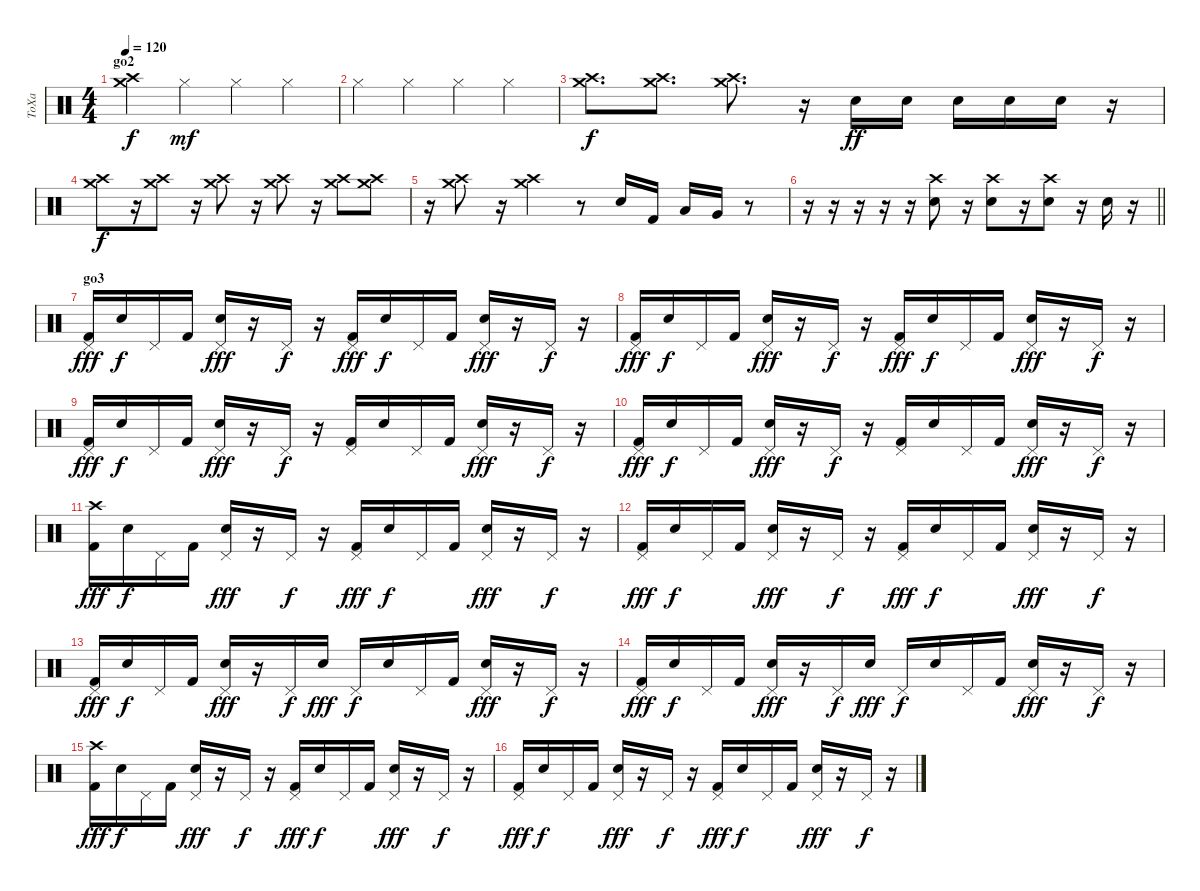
\track ("ТоХа" "ТоХа") {instrument percussion}
\staff {score}
\articulation defaults
\ts (4 4)
\section ("" "go2")
\tempo 120
\clef neutral
\ks c
("Crash high (hit)" "Crash medium (hit)").4{dy f} "Hi-Hat (closed)".4{dy mf} "Hi-Hat (closed)".4 "Hi-Hat (closed)".4 |
"Hi-Hat (closed)".4 "Hi-Hat (closed)".4 "Hi-Hat (closed)".4 "Hi-Hat (closed)".4 |
("Crash high (hit)" "Crash medium (hit)").8{d dy f} ("Crash high (hit)" "Crash medium (hit)").8{d} ("Crash high (hit)" "Crash medium (hit)").8{d} r.16 "Electric Snare (hit)".16{dy ff} "Electric Snare (hit)".16 "Electric Snare (hit)".16 "Electric Snare (hit)".16 "Electric Snare (hit)".16 r.16 |
("Crash high (hit)" "Crash medium (hit)").8{dy f} r.16 ("Crash high (hit)" "Crash medium (hit)").8 r.16 ("Crash high (hit)" "Crash medium (hit)").8 r.16 ("Crash high (hit)" "Crash medium (hit)").8 r.16 ("Crash high (hit)" "Crash medium (hit)").8 ("Crash high (hit)" "Crash medium (hit)").8 |
r.16 ("Crash high (hit)" "Crash medium (hit)").8 r.16 ("Crash high (hit)" "Crash medium (hit)").4 r.8 "Electric Snare (hit)".16 "Kick (hit) 2".16 "Low Floor Tom (hit)".16 "Very Low Tom (hit)".16 r.8 |
\barLineRight lightlight
r.16 r.16 r.16 r.16 r.16 ("Crash high (hit)" "Electric Snare (hit)").8 r.16 ("Electric Snare (hit)" "Crash high (hit)").8 r.16 ("Electric Snare (hit)" "Crash high (hit)").8 r.16 "Electric Snare (hit)".16 r.16 |
\section ("" "go3")
("Pedal Hi-Hat (hit)" "Kick (hit) 2").16{dy fff} "Electric Snare (hit)".16{dy f} "Pedal Hi-Hat (hit)".16 "Kick (hit) 2".16 ("Pedal Hi-Hat (hit)" "Electric Snare (hit)").16{dy fff} r.16 "Pedal Hi-Hat (hit)".16{dy f} r.16 ("Pedal Hi-Hat (hit)" "Kick (hit) 2").16{dy fff} "Electric Snare (hit)".16{dy f} "Pedal Hi-Hat (hit)".16 "Kick (hit) 2".16 ("Pedal Hi-Hat (hit)" "Electric Snare (hit)").16{dy fff} r.16 "Pedal Hi-Hat (hit)".16{dy f} r.16 |
("Pedal Hi-Hat (hit)" "Kick (hit) 2").16{dy fff} "Electric Snare (hit)".16{dy f} "Pedal Hi-Hat (hit)".16 "Kick (hit) 2".16 ("Pedal Hi-Hat (hit)" "Electric Snare (hit)").16{dy fff} r.16 "Pedal Hi-Hat (hit)".16{dy f} r.16 ("Pedal Hi-Hat (hit)" "Kick (hit) 2").16{dy fff} "Electric Snare (hit)".16{dy f} "Pedal Hi-Hat (hit)".16 "Kick (hit) 2".16 ("Pedal Hi-Hat (hit)" "Electric Snare (hit)").16{dy fff} r.16 "Pedal Hi-Hat (hit)".16{dy f} r.16 |
("Pedal Hi-Hat (hit)" "Kick (hit) 2").16{dy fff} "Electric Snare (hit)".16{dy f} "Pedal Hi-Hat (hit)".16 "Kick (hit) 2".16 ("Pedal Hi-Hat (hit)" "Electric Snare (hit)").16{dy fff} r.16 "Pedal Hi-Hat (hit)".16{dy f} r.16 ("Pedal Hi-Hat (hit)" "Kick (hit) 2").16 "Electric Snare (hit)".16 "Pedal Hi-Hat (hit)".16 "Kick (hit) 2".16 ("Pedal Hi-Hat (hit)" "Electric Snare (hit)").16{dy fff} r.16 "Pedal Hi-Hat (hit)".16{dy f} r.16 |
("Pedal Hi-Hat (hit)" "Kick (hit) 2").16{dy fff} "Electric Snare (hit)".16{dy f} "Pedal Hi-Hat (hit)".16 "Kick (hit) 2".16 ("Pedal Hi-Hat (hit)" "Electric Snare (hit)").16{dy fff} r.16 "Pedal Hi-Hat (hit)".16{dy f} r.16 ("Pedal Hi-Hat (hit)" "Kick (hit) 2").16 "Electric Snare (hit)".16 "Pedal Hi-Hat (hit)".16 "Kick (hit) 2".16 ("Pedal Hi-Hat (hit)" "Electric Snare (hit)").16{dy fff} r.16 "Pedal Hi-Hat (hit)".16{dy f} r.16 |
("Crash high (hit)" "Kick (hit) 2").16{dy fff} "Electric Snare (hit)".16{dy f} "Pedal Hi-Hat (hit)".16 "Kick (hit) 2".16 ("Pedal Hi-Hat (hit)" "Electric Snare (hit)").16{dy fff} r.16 "Pedal Hi-Hat (hit)".16{dy f} r.16 ("Pedal Hi-Hat (hit)" "Kick (hit) 2").16{dy fff} "Electric Snare (hit)".16{dy f} "Pedal Hi-Hat (hit)".16 "Kick (hit) 2".16 ("Pedal Hi-Hat (hit)" "Electric Snare (hit)").16{dy fff} r.16 "Pedal Hi-Hat (hit)".16{dy f} r.16 |
("Pedal Hi-Hat (hit)" "Kick (hit) 2").16{dy fff} "Electric Snare (hit)".16{dy f} "Pedal Hi-Hat (hit)".16 "Kick (hit) 2".16 ("Pedal Hi-Hat (hit)" "Electric Snare (hit)").16{dy fff} r.16 "Pedal Hi-Hat (hit)".16{dy f} r.16 ("Pedal Hi-Hat (hit)" "Kick (hit) 2").16{dy fff} "Electric Snare (hit)".16{dy f} "Pedal Hi-Hat (hit)".16 "Kick (hit) 2".16 ("Pedal Hi-Hat (hit)" "Electric Snare (hit)").16{dy fff} r.16 "Pedal Hi-Hat (hit)".16{dy f} r.16 |
("Pedal Hi-Hat (hit)" "Kick (hit) 2").16{dy fff} "Electric Snare (hit)".16{dy f} "Pedal Hi-Hat (hit)".16 "Kick (hit) 2".16 ("Pedal Hi-Hat (hit)" "Electric Snare (hit)").16{dy fff} r.16 "Pedal Hi-Hat (hit)".16{dy f} "Electric Snare (hit)".16{dy fff} "Pedal Hi-Hat (hit)".16{dy f} "Electric Snare (hit)".16 "Pedal Hi-Hat (hit)".16 "Kick (hit) 2".16 ("Pedal Hi-Hat (hit)" "Electric Snare (hit)").16{dy fff} r.16 "Pedal Hi-Hat (hit)".16{dy f} r.16 |
("Pedal Hi-Hat (hit)" "Kick (hit) 2").16{dy fff} "Electric Snare (hit)".16{dy f} "Pedal Hi-Hat (hit)".16 "Kick (hit) 2".16 ("Pedal Hi-Hat (hit)" "Electric Snare (hit)").16{dy fff} r.16 "Pedal Hi-Hat (hit)".16{dy f} "Electric Snare (hit)".16{dy fff} "Pedal Hi-Hat (hit)".16{dy f} "Electric Snare (hit)".16 "Pedal Hi-Hat (hit)".16 "Kick (hit) 2".16 ("Pedal Hi-Hat (hit)" "Electric Snare (hit)").16{dy fff} r.16 "Pedal Hi-Hat (hit)".16{dy f} r.16 |
("Crash high (hit)" "Kick (hit) 2").16{dy fff} "Electric Snare (hit)".16{dy f} "Pedal Hi-Hat (hit)".16 "Kick (hit) 2".16 ("Pedal Hi-Hat (hit)" "Electric Snare (hit)").16{dy fff} r.16 "Pedal Hi-Hat (hit)".16{dy f} r.16 ("Pedal Hi-Hat (hit)" "Kick (hit) 2").16{dy fff} "Electric Snare (hit)".16{dy f} "Pedal Hi-Hat (hit)".16 "Kick (hit) 2".16 ("Pedal Hi-Hat (hit)" "Electric Snare (hit)").16{dy fff} r.16 "Pedal Hi-Hat (hit)".16{dy f} r.16 |
("Pedal Hi-Hat (hit)" "Kick (hit) 2").16{dy fff} "Electric Snare (hit)".16{dy f} "Pedal Hi-Hat (hit)".16 "Kick (hit) 2".16 ("Pedal Hi-Hat (hit)" "Electric Snare (hit)").16{dy fff} r.16 "Pedal Hi-Hat (hit)".16{dy f} r.16 ("Pedal Hi-Hat (hit)" "Kick (hit) 2").16{dy fff} "Electric Snare (hit)".16{dy f} "Pedal Hi-Hat (hit)".16 "Kick (hit) 2".16 ("Pedal Hi-Hat (hit)" "Electric Snare (hit)").16{dy fff} r.16 "Pedal Hi-Hat (hit)".16{dy f} r.16
